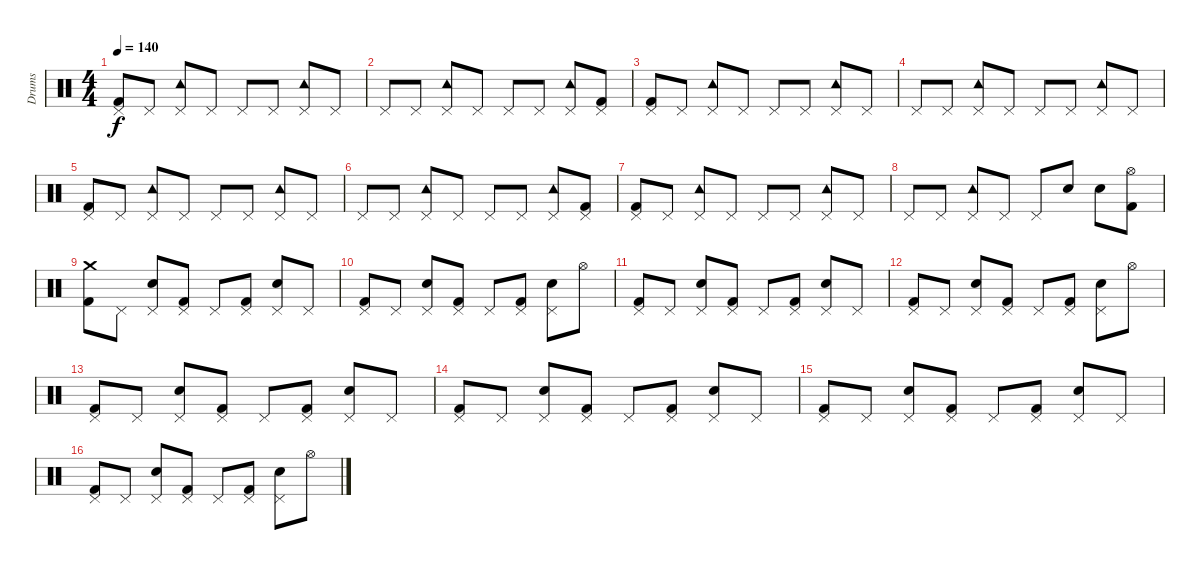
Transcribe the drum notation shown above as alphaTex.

\track ("Drums" "Drums") {instrument percussion}
\staff {score}
\articulation defaults
\ts (4 4)
\tempo 140
\clef neutral
\ks c
("Pedal Hi-Hat (hit)" "Kick (hit) 2").8{dy f} "Pedal Hi-Hat (hit)".8 ("Pedal Hi-Hat (hit)" "Tambourine (hit)").8 "Pedal Hi-Hat (hit)".8 "Pedal Hi-Hat (hit)".8 "Pedal Hi-Hat (hit)".8 ("Pedal Hi-Hat (hit)" "Tambourine (hit)").8 "Pedal Hi-Hat (hit)".8 |
"Pedal Hi-Hat (hit)".8 "Pedal Hi-Hat (hit)".8 ("Pedal Hi-Hat (hit)" "Tambourine (hit)").8 "Pedal Hi-Hat (hit)".8 "Pedal Hi-Hat (hit)".8 "Pedal Hi-Hat (hit)".8 ("Pedal Hi-Hat (hit)" "Tambourine (hit)").8 ("Pedal Hi-Hat (hit)" "Kick (hit) 2").8 |
("Pedal Hi-Hat (hit)" "Kick (hit) 2").8 "Pedal Hi-Hat (hit)".8 ("Pedal Hi-Hat (hit)" "Tambourine (hit)").8 "Pedal Hi-Hat (hit)".8 "Pedal Hi-Hat (hit)".8 "Pedal Hi-Hat (hit)".8 ("Pedal Hi-Hat (hit)" "Tambourine (hit)").8 "Pedal Hi-Hat (hit)".8 |
"Pedal Hi-Hat (hit)".8 "Pedal Hi-Hat (hit)".8 ("Pedal Hi-Hat (hit)" "Tambourine (hit)").8 "Pedal Hi-Hat (hit)".8 "Pedal Hi-Hat (hit)".8 "Pedal Hi-Hat (hit)".8 ("Pedal Hi-Hat (hit)" "Tambourine (hit)").8 "Pedal Hi-Hat (hit)".8 |
("Pedal Hi-Hat (hit)" "Kick (hit) 2").8 "Pedal Hi-Hat (hit)".8 ("Pedal Hi-Hat (hit)" "Tambourine (hit)").8 "Pedal Hi-Hat (hit)".8 "Pedal Hi-Hat (hit)".8 "Pedal Hi-Hat (hit)".8 ("Pedal Hi-Hat (hit)" "Tambourine (hit)").8 "Pedal Hi-Hat (hit)".8 |
"Pedal Hi-Hat (hit)".8 "Pedal Hi-Hat (hit)".8 ("Pedal Hi-Hat (hit)" "Tambourine (hit)").8 "Pedal Hi-Hat (hit)".8 "Pedal Hi-Hat (hit)".8 "Pedal Hi-Hat (hit)".8 ("Pedal Hi-Hat (hit)" "Tambourine (hit)").8 ("Pedal Hi-Hat (hit)" "Kick (hit) 2").8 |
("Pedal Hi-Hat (hit)" "Kick (hit) 2").8 "Pedal Hi-Hat (hit)".8 ("Pedal Hi-Hat (hit)" "Tambourine (hit)").8 "Pedal Hi-Hat (hit)".8 "Pedal Hi-Hat (hit)".8 "Pedal Hi-Hat (hit)".8 ("Pedal Hi-Hat (hit)" "Tambourine (hit)").8 "Pedal Hi-Hat (hit)".8 |
"Pedal Hi-Hat (hit)".8 "Pedal Hi-Hat (hit)".8 ("Pedal Hi-Hat (hit)" "Tambourine (hit)").8 "Pedal Hi-Hat (hit)".8 "Pedal Hi-Hat (hit)".8 "Electric Snare (hit)".8 "Electric Snare (hit)".8 ("Kick (hit) 2" "Hi-Hat (open)").8 |
("Crash medium (hit)" "Kick (hit) 2").8 "Pedal Hi-Hat (hit)".8 ("Pedal Hi-Hat (hit)" "Electric Snare (hit)").8 ("Pedal Hi-Hat (hit)" "Kick (hit) 2").8 "Pedal Hi-Hat (hit)".8 ("Pedal Hi-Hat (hit)" "Kick (hit) 2").8 ("Pedal Hi-Hat (hit)" "Electric Snare (hit)").8 "Pedal Hi-Hat (hit)".8 |
("Pedal Hi-Hat (hit)" "Kick (hit) 2").8 "Pedal Hi-Hat (hit)".8 ("Pedal Hi-Hat (hit)" "Electric Snare (hit)").8 ("Pedal Hi-Hat (hit)" "Kick (hit) 2").8 "Pedal Hi-Hat (hit)".8 ("Pedal Hi-Hat (hit)" "Kick (hit) 2").8 ("Pedal Hi-Hat (hit)" "Electric Snare (hit)").8 "Hi-Hat (open)".8 |
("Pedal Hi-Hat (hit)" "Kick (hit) 2").8 "Pedal Hi-Hat (hit)".8 ("Pedal Hi-Hat (hit)" "Electric Snare (hit)").8 ("Pedal Hi-Hat (hit)" "Kick (hit) 2").8 "Pedal Hi-Hat (hit)".8 ("Pedal Hi-Hat (hit)" "Kick (hit) 2").8 ("Pedal Hi-Hat (hit)" "Electric Snare (hit)").8 "Pedal Hi-Hat (hit)".8 |
("Pedal Hi-Hat (hit)" "Kick (hit) 2").8 "Pedal Hi-Hat (hit)".8 ("Pedal Hi-Hat (hit)" "Electric Snare (hit)").8 ("Pedal Hi-Hat (hit)" "Kick (hit) 2").8 "Pedal Hi-Hat (hit)".8 ("Pedal Hi-Hat (hit)" "Kick (hit) 2").8 ("Pedal Hi-Hat (hit)" "Electric Snare (hit)").8 "Hi-Hat (open)".8 |
("Pedal Hi-Hat (hit)" "Kick (hit) 2").8 "Pedal Hi-Hat (hit)".8 ("Pedal Hi-Hat (hit)" "Electric Snare (hit)").8 ("Pedal Hi-Hat (hit)" "Kick (hit) 2").8 "Pedal Hi-Hat (hit)".8 ("Pedal Hi-Hat (hit)" "Kick (hit) 2").8 ("Pedal Hi-Hat (hit)" "Electric Snare (hit)").8 "Pedal Hi-Hat (hit)".8 |
("Pedal Hi-Hat (hit)" "Kick (hit) 2").8 "Pedal Hi-Hat (hit)".8 ("Pedal Hi-Hat (hit)" "Electric Snare (hit)").8 ("Pedal Hi-Hat (hit)" "Kick (hit) 2").8 "Pedal Hi-Hat (hit)".8 ("Pedal Hi-Hat (hit)" "Kick (hit) 2").8 ("Pedal Hi-Hat (hit)" "Electric Snare (hit)").8 "Pedal Hi-Hat (hit)".8 |
("Pedal Hi-Hat (hit)" "Kick (hit) 2").8 "Pedal Hi-Hat (hit)".8 ("Pedal Hi-Hat (hit)" "Electric Snare (hit)").8 ("Pedal Hi-Hat (hit)" "Kick (hit) 2").8 "Pedal Hi-Hat (hit)".8 ("Pedal Hi-Hat (hit)" "Kick (hit) 2").8 ("Pedal Hi-Hat (hit)" "Electric Snare (hit)").8 "Pedal Hi-Hat (hit)".8 |
("Pedal Hi-Hat (hit)" "Kick (hit) 2").8 "Pedal Hi-Hat (hit)".8 ("Pedal Hi-Hat (hit)" "Electric Snare (hit)").8 ("Pedal Hi-Hat (hit)" "Kick (hit) 2").8 "Pedal Hi-Hat (hit)".8 ("Pedal Hi-Hat (hit)" "Kick (hit) 2").8 ("Pedal Hi-Hat (hit)" "Electric Snare (hit)").8 "Hi-Hat (open)".8
